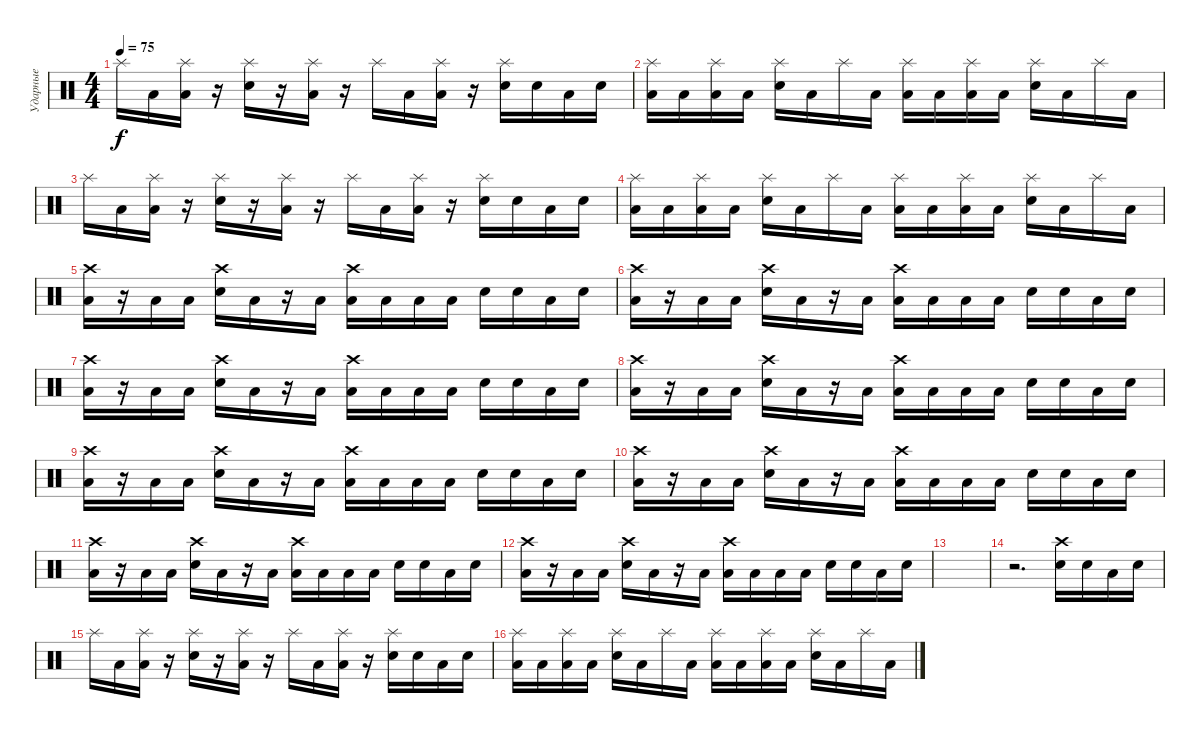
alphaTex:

\track ("Ударные" "Ударные") {instrument percussion}
\staff {score}
\articulation defaults
\ts (4 4)
\tempo 75
\clef neutral
\ks c "Splash (hit)".16{dy f} "Low Floor Tom (hit)".16
("Splash (hit)" "Low Floor Tom (hit)").16 r.16 ("Splash (hit)" "Electric Snare (hit)").16 r.16 ("Splash (hit)" "Low Floor Tom (hit)").16 r.16 "Splash (hit)".16 "Low Floor Tom (hit)".16 ("Splash (hit)" "Low Floor Tom (hit)").16 r.16 ("Splash (hit)" "Electric Snare (hit)").16 "Electric Snare (hit)".16 "Low Floor Tom (hit)".16 "Electric Snare (hit)".16 |
("Splash (hit)" "Low Floor Tom (hit)").16 "Low Floor Tom (hit)".16 ("Splash (hit)" "Low Floor Tom (hit)").16 "Low Floor Tom (hit)".16 ("Splash (hit)" "Electric Snare (hit)").16 "Low Floor Tom (hit)".16 "Splash (hit)".16 "Low Floor Tom (hit)".16 ("Splash (hit)" "Low Floor Tom (hit)").16 "Low Floor Tom (hit)".16 ("Splash (hit)" "Low Floor Tom (hit)").16 "Low Floor Tom (hit)".16 ("Splash (hit)" "Electric Snare (hit)").16 "Low Floor Tom (hit)".16 "Splash (hit)".16 "Low Floor Tom (hit)".16 |
"Splash (hit)".16 "Low Floor Tom (hit)".16 ("Splash (hit)" "Low Floor Tom (hit)").16 r.16 ("Splash (hit)" "Electric Snare (hit)").16 r.16 ("Splash (hit)" "Low Floor Tom (hit)").16 r.16 "Splash (hit)".16 "Low Floor Tom (hit)".16 ("Splash (hit)" "Low Floor Tom (hit)").16 r.16 ("Splash (hit)" "Electric Snare (hit)").16 "Electric Snare (hit)".16 "Low Floor Tom (hit)".16 "Electric Snare (hit)".16 |
("Splash (hit)" "Low Floor Tom (hit)").16 "Low Floor Tom (hit)".16 ("Splash (hit)" "Low Floor Tom (hit)").16 "Low Floor Tom (hit)".16 ("Splash (hit)" "Electric Snare (hit)").16 "Low Floor Tom (hit)".16 "Splash (hit)".16 "Low Floor Tom (hit)".16 ("Splash (hit)" "Low Floor Tom (hit)").16 "Low Floor Tom (hit)".16 ("Splash (hit)" "Low Floor Tom (hit)").16 "Low Floor Tom (hit)".16 ("Splash (hit)" "Electric Snare (hit)").16 "Low Floor Tom (hit)".16 "Splash (hit)".16 "Low Floor Tom (hit)".16 |
("Crash high (hit)" "Low Floor Tom (hit)").16 r.16 "Low Floor Tom (hit)".16 "Low Floor Tom (hit)".16 ("Crash high (hit)" "Electric Snare (hit)").16 "Low Floor Tom (hit)".16 r.16 "Low Floor Tom (hit)".16 ("Crash high (hit)" "Low Floor Tom (hit)").16 "Low Floor Tom (hit)".16 "Low Floor Tom (hit)".16 "Low Floor Tom (hit)".16 "Electric Snare (hit)".16 "Electric Snare (hit)".16 "Low Floor Tom (hit)".16 "Electric Snare (hit)".16 |
("Crash high (hit)" "Low Floor Tom (hit)").16 r.16 "Low Floor Tom (hit)".16 "Low Floor Tom (hit)".16 ("Crash high (hit)" "Electric Snare (hit)").16 "Low Floor Tom (hit)".16 r.16 "Low Floor Tom (hit)".16 ("Crash high (hit)" "Low Floor Tom (hit)").16 "Low Floor Tom (hit)".16 "Low Floor Tom (hit)".16 "Low Floor Tom (hit)".16 "Electric Snare (hit)".16 "Electric Snare (hit)".16 "Low Floor Tom (hit)".16 "Electric Snare (hit)".16 |
("Crash high (hit)" "Low Floor Tom (hit)").16 r.16 "Low Floor Tom (hit)".16 "Low Floor Tom (hit)".16 ("Crash high (hit)" "Electric Snare (hit)").16 "Low Floor Tom (hit)".16 r.16 "Low Floor Tom (hit)".16 ("Crash high (hit)" "Low Floor Tom (hit)").16 "Low Floor Tom (hit)".16 "Low Floor Tom (hit)".16 "Low Floor Tom (hit)".16 "Electric Snare (hit)".16 "Electric Snare (hit)".16 "Low Floor Tom (hit)".16 "Electric Snare (hit)".16 |
("Crash high (hit)" "Low Floor Tom (hit)").16 r.16 "Low Floor Tom (hit)".16 "Low Floor Tom (hit)".16 ("Crash high (hit)" "Electric Snare (hit)").16 "Low Floor Tom (hit)".16 r.16 "Low Floor Tom (hit)".16 ("Crash high (hit)" "Low Floor Tom (hit)").16 "Low Floor Tom (hit)".16 "Low Floor Tom (hit)".16 "Low Floor Tom (hit)".16 "Electric Snare (hit)".16 "Electric Snare (hit)".16 "Low Floor Tom (hit)".16 "Electric Snare (hit)".16 |
("Crash high (hit)" "Low Floor Tom (hit)").16 r.16 "Low Floor Tom (hit)".16 "Low Floor Tom (hit)".16 ("Crash high (hit)" "Electric Snare (hit)").16 "Low Floor Tom (hit)".16 r.16 "Low Floor Tom (hit)".16 ("Crash high (hit)" "Low Floor Tom (hit)").16 "Low Floor Tom (hit)".16 "Low Floor Tom (hit)".16 "Low Floor Tom (hit)".16 "Electric Snare (hit)".16 "Electric Snare (hit)".16 "Low Floor Tom (hit)".16 "Electric Snare (hit)".16 |
("Crash high (hit)" "Low Floor Tom (hit)").16 r.16 "Low Floor Tom (hit)".16 "Low Floor Tom (hit)".16 ("Crash high (hit)" "Electric Snare (hit)").16 "Low Floor Tom (hit)".16 r.16 "Low Floor Tom (hit)".16 ("Crash high (hit)" "Low Floor Tom (hit)").16 "Low Floor Tom (hit)".16 "Low Floor Tom (hit)".16 "Low Floor Tom (hit)".16 "Electric Snare (hit)".16 "Electric Snare (hit)".16 "Low Floor Tom (hit)".16 "Electric Snare (hit)".16 |
("Crash high (hit)" "Low Floor Tom (hit)").16 r.16 "Low Floor Tom (hit)".16 "Low Floor Tom (hit)".16 ("Crash high (hit)" "Electric Snare (hit)").16 "Low Floor Tom (hit)".16 r.16 "Low Floor Tom (hit)".16 ("Crash high (hit)" "Low Floor Tom (hit)").16 "Low Floor Tom (hit)".16 "Low Floor Tom (hit)".16 "Low Floor Tom (hit)".16 "Electric Snare (hit)".16 "Electric Snare (hit)".16 "Low Floor Tom (hit)".16 "Electric Snare (hit)".16 |
("Crash high (hit)" "Low Floor Tom (hit)").16 r.16 "Low Floor Tom (hit)".16 "Low Floor Tom (hit)".16 ("Crash high (hit)" "Electric Snare (hit)").16 "Low Floor Tom (hit)".16 r.16 "Low Floor Tom (hit)".16 ("Crash high (hit)" "Low Floor Tom (hit)").16 "Low Floor Tom (hit)".16 "Low Floor Tom (hit)".16 "Low Floor Tom (hit)".16 "Electric Snare (hit)".16 "Electric Snare (hit)".16 "Low Floor Tom (hit)".16 "Electric Snare (hit)".16 |
|
r.2{d} ("Crash high (hit)" "Electric Snare (hit)").16 "Electric Snare (hit)".16 "Low Floor Tom (hit)".16 "Electric Snare (hit)".16 |
"Splash (hit)".16 "Low Floor Tom (hit)".16 ("Splash (hit)" "Low Floor Tom (hit)").16 r.16 ("Splash (hit)" "Electric Snare (hit)").16 r.16 ("Splash (hit)" "Low Floor Tom (hit)").16 r.16 "Splash (hit)".16 "Low Floor Tom (hit)".16 ("Splash (hit)" "Low Floor Tom (hit)").16 r.16 ("Splash (hit)" "Electric Snare (hit)").16 "Electric Snare (hit)".16 "Low Floor Tom (hit)".16 "Electric Snare (hit)".16 |
("Splash (hit)" "Low Floor Tom (hit)").16 "Low Floor Tom (hit)".16 ("Splash (hit)" "Low Floor Tom (hit)").16 "Low Floor Tom (hit)".16 ("Splash (hit)" "Electric Snare (hit)").16 "Low Floor Tom (hit)".16 "Splash (hit)".16 "Low Floor Tom (hit)".16 ("Splash (hit)" "Low Floor Tom (hit)").16 "Low Floor Tom (hit)".16 ("Splash (hit)" "Low Floor Tom (hit)").16 "Low Floor Tom (hit)".16 ("Splash (hit)" "Electric Snare (hit)").16 "Low Floor Tom (hit)".16 "Splash (hit)".16 "Low Floor Tom (hit)".16
